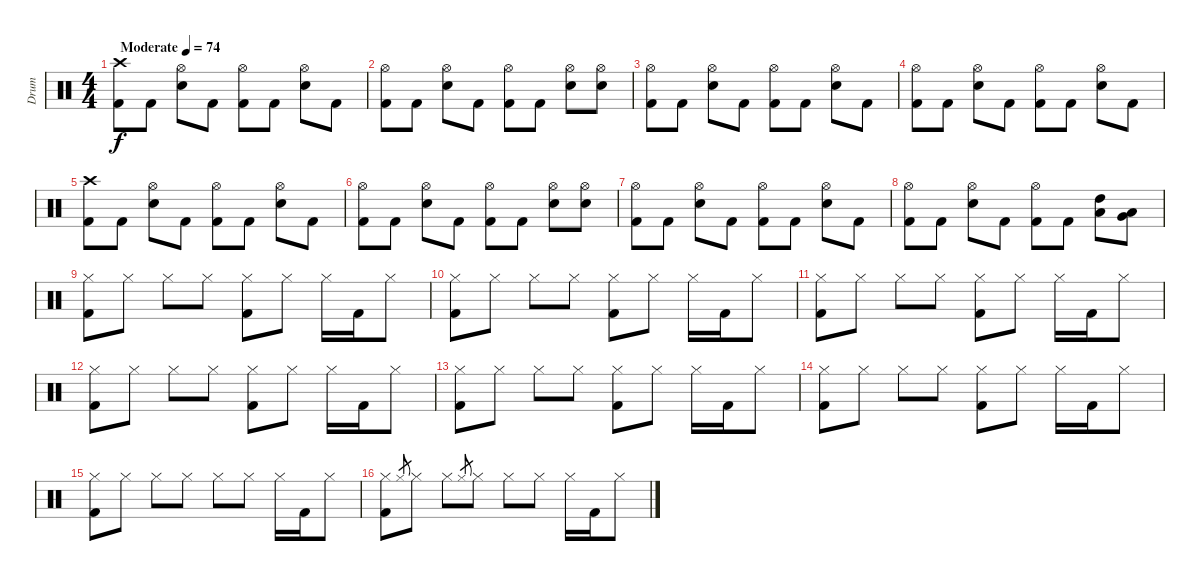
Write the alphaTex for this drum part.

\track ("Drum" "Drum") {instrument percussion}
\staff {score}
\articulation defaults
\ts (4 4)
\tempo (74 "Moderate")
\clef neutral
\ks c
("Kick (hit) 2" "Crash high (hit)").8{dy f} "Kick (hit) 2".8 ("Snare (hit) 2" "Hi-Hat (open)").8 "Kick (hit) 2".8 ("Kick (hit) 2" "Hi-Hat (open)").8 "Kick (hit) 2".8 ("Snare (hit) 2" "Hi-Hat (open)").8 "Kick (hit) 2".8 |
("Hi-Hat (open)" "Kick (hit) 2").8 "Kick (hit) 2".8 ("Snare (hit) 2" "Hi-Hat (open)").8 "Kick (hit) 2".8 ("Kick (hit) 2" "Hi-Hat (open)").8 "Kick (hit) 2".8 ("Snare (hit) 2" "Hi-Hat (open)").8 ("Snare (hit) 2" "Hi-Hat (open)").8 |
("Hi-Hat (open)" "Kick (hit) 2").8 "Kick (hit) 2".8 ("Snare (hit) 2" "Hi-Hat (open)").8 "Kick (hit) 2".8 ("Kick (hit) 2" "Hi-Hat (open)").8 "Kick (hit) 2".8 ("Snare (hit) 2" "Hi-Hat (open)").8 "Kick (hit) 2".8 |
("Hi-Hat (open)" "Kick (hit) 2").8 "Kick (hit) 2".8 ("Snare (hit) 2" "Hi-Hat (open)").8 "Kick (hit) 2".8 ("Kick (hit) 2" "Hi-Hat (open)").8 "Kick (hit) 2".8 ("Snare (hit) 2" "Hi-Hat (open)").8 "Kick (hit) 2".8 |
("Kick (hit) 2" "Crash high (hit)").8 "Kick (hit) 2".8 ("Snare (hit) 2" "Hi-Hat (open)").8 "Kick (hit) 2".8 ("Kick (hit) 2" "Hi-Hat (open)").8 "Kick (hit) 2".8 ("Snare (hit) 2" "Hi-Hat (open)").8 "Kick (hit) 2".8 |
("Hi-Hat (open)" "Kick (hit) 2").8 "Kick (hit) 2".8 ("Snare (hit) 2" "Hi-Hat (open)").8 "Kick (hit) 2".8 ("Kick (hit) 2" "Hi-Hat (open)").8 "Kick (hit) 2".8 ("Snare (hit) 2" "Hi-Hat (open)").8 ("Snare (hit) 2" "Hi-Hat (open)").8 |
("Hi-Hat (open)" "Kick (hit) 2").8 "Kick (hit) 2".8 ("Snare (hit) 2" "Hi-Hat (open)").8 "Kick (hit) 2".8 ("Kick (hit) 2" "Hi-Hat (open)").8 "Kick (hit) 2".8 ("Snare (hit) 2" "Hi-Hat (open)").8 "Kick (hit) 2".8 |
("Hi-Hat (open)" "Kick (hit) 2").8 "Kick (hit) 2".8 ("Snare (hit) 2" "Hi-Hat (open)").8 "Kick (hit) 2".8 ("Kick (hit) 2" "Hi-Hat (open)").8 "Kick (hit) 2".8 ("High Tom (hit)" "Low Tom (hit)").8 ("Very Low Tom (hit)" "Low Tom (hit)").8 |
("Kick (hit) 2" "Hi-Hat (closed)").8 "Hi-Hat (closed)".8 "Hi-Hat (closed)".8 "Hi-Hat (closed)".8 ("Hi-Hat (closed)" "Kick (hit) 2").8 "Hi-Hat (closed)".8 "Hi-Hat (closed)".16 "Kick (hit) 2".16 "Hi-Hat (closed)".8 |
("Kick (hit) 2" "Hi-Hat (closed)").8 "Hi-Hat (closed)".8 "Hi-Hat (closed)".8 "Hi-Hat (closed)".8 ("Hi-Hat (closed)" "Kick (hit) 2").8 "Hi-Hat (closed)".8 "Hi-Hat (closed)".16 "Kick (hit) 2".16 "Hi-Hat (closed)".8 |
("Kick (hit) 2" "Hi-Hat (closed)").8 "Hi-Hat (closed)".8 "Hi-Hat (closed)".8 "Hi-Hat (closed)".8 ("Hi-Hat (closed)" "Kick (hit) 2").8 "Hi-Hat (closed)".8 "Hi-Hat (closed)".16 "Kick (hit) 2".16 "Hi-Hat (closed)".8 |
("Kick (hit) 2" "Hi-Hat (closed)").8 "Hi-Hat (closed)".8 "Hi-Hat (closed)".8 "Hi-Hat (closed)".8 ("Hi-Hat (closed)" "Kick (hit) 2").8 "Hi-Hat (closed)".8 "Hi-Hat (closed)".16 "Kick (hit) 2".16 "Hi-Hat (closed)".8 |
("Kick (hit) 2" "Hi-Hat (closed)").8 "Hi-Hat (closed)".8 "Hi-Hat (closed)".8 "Hi-Hat (closed)".8 ("Hi-Hat (closed)" "Kick (hit) 2").8 "Hi-Hat (closed)".8 "Hi-Hat (closed)".16 "Kick (hit) 2".16 "Hi-Hat (closed)".8 |
("Kick (hit) 2" "Hi-Hat (closed)").8 "Hi-Hat (closed)".8 "Hi-Hat (closed)".8 "Hi-Hat (closed)".8 ("Hi-Hat (closed)" "Kick (hit) 2").8 "Hi-Hat (closed)".8 "Hi-Hat (closed)".16 "Kick (hit) 2".16 "Hi-Hat (closed)".8 |
("Kick (hit) 2" "Hi-Hat (closed)").8 "Hi-Hat (closed)".8 "Hi-Hat (closed)".8 "Hi-Hat (closed)".8 "Hi-Hat (closed)".8 "Hi-Hat (closed)".8 "Hi-Hat (closed)".16 "Kick (hit) 2".16 "Hi-Hat (closed)".8 |
("Kick (hit) 2" "Hi-Hat (closed)").8 "Hi-Hat (closed)".8{gr} "Hi-Hat (closed)".8 "Hi-Hat (closed)".8 "Hi-Hat (closed)".8{gr} "Hi-Hat (closed)".8 "Hi-Hat (closed)".8 "Hi-Hat (closed)".8 "Hi-Hat (closed)".16 "Kick (hit) 2".16 "Hi-Hat (closed)".8
